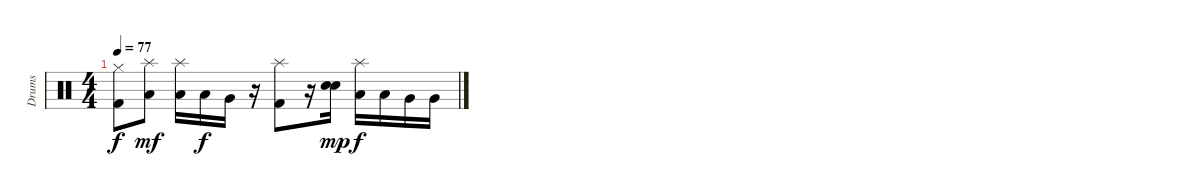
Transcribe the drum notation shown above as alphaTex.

\track ("Drums" "Drums") {instrument percussion}
\staff {score}
\articulation defaults
\ts (4 4)
\tempo 77
\clef neutral
\ks c
("Hi-Hat (closed)" "Kick (hit) 2").8{dy f} ("Splash (hit)" "Low Tom (hit)").8{dy mf} ("Splash (hit)" "Low Tom (hit)").16 "Low Tom (hit)".16{dy f} "Very Low Tom (hit)".16 r.16 ("Splash (hit)" "Kick (hit) 2").8 r.16 ("Snare (hit) 2" "Electric Snare (hit)").16{dy mp} ("Splash (hit)" "Low Tom (hit)").16{dy f} "Low Tom (hit)".16 "Very Low Tom (hit)".16 "Very Low Tom (hit)".16
